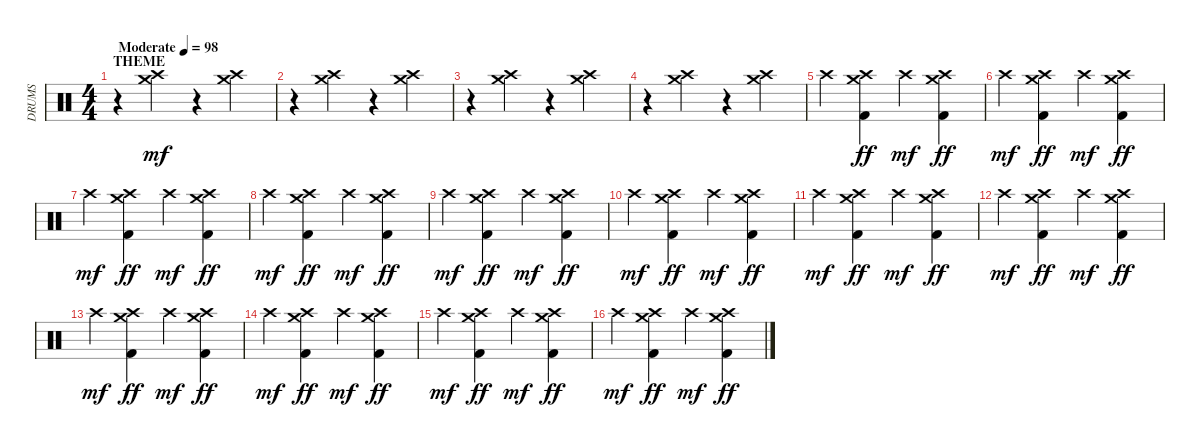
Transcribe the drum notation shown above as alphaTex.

\track ("DRUMS" "DRUMS") {instrument percussion}
\staff {score}
\articulation defaults
\ts (4 4)
\section ("" "THEME")
\tempo (98 "Moderate")
\clef neutral
\ks c
r.4{dy mf} ("Crash high (hit)" "Crash medium (hit)").4 r.4 ("Crash high (hit)" "Crash medium (hit)").4 |
r.4 ("Crash high (hit)" "Crash medium (hit)").4 r.4 ("Crash high (hit)" "Crash medium (hit)").4 |
r.4 ("Crash high (hit)" "Crash medium (hit)").4 r.4 ("Crash high (hit)" "Crash medium (hit)").4 |
r.4 ("Crash high (hit)" "Crash medium (hit)").4 r.4 ("Crash high (hit)" "Crash medium (hit)").4 |
"Crash high (hit)".4 ("Crash high (hit)" "Crash medium (hit)" "Kick (hit) 2").4{dy ff} "Crash high (hit)".4{dy mf} ("Crash high (hit)" "Crash medium (hit)" "Kick (hit) 2").4{dy ff} |
"Crash high (hit)".4{dy mf} ("Crash high (hit)" "Crash medium (hit)" "Kick (hit) 2").4{dy ff} "Crash high (hit)".4{dy mf} ("Crash high (hit)" "Crash medium (hit)" "Kick (hit) 2").4{dy ff} |
"Crash high (hit)".4{dy mf} ("Crash high (hit)" "Crash medium (hit)" "Kick (hit) 2").4{dy ff} "Crash high (hit)".4{dy mf} ("Crash high (hit)" "Crash medium (hit)" "Kick (hit) 2").4{dy ff} |
"Crash high (hit)".4{dy mf} ("Crash high (hit)" "Crash medium (hit)" "Kick (hit) 2").4{dy ff} "Crash high (hit)".4{dy mf} ("Crash high (hit)" "Crash medium (hit)" "Kick (hit) 2").4{dy ff} |
"Crash high (hit)".4{dy mf} ("Crash high (hit)" "Crash medium (hit)" "Kick (hit) 2").4{dy ff} "Crash high (hit)".4{dy mf} ("Crash high (hit)" "Crash medium (hit)" "Kick (hit) 2").4{dy ff} |
"Crash high (hit)".4{dy mf} ("Crash high (hit)" "Crash medium (hit)" "Kick (hit) 2").4{dy ff} "Crash high (hit)".4{dy mf} ("Crash high (hit)" "Crash medium (hit)" "Kick (hit) 2").4{dy ff} |
"Crash high (hit)".4{dy mf} ("Crash high (hit)" "Crash medium (hit)" "Kick (hit) 2").4{dy ff} "Crash high (hit)".4{dy mf} ("Crash high (hit)" "Crash medium (hit)" "Kick (hit) 2").4{dy ff} |
"Crash high (hit)".4{dy mf} ("Crash high (hit)" "Crash medium (hit)" "Kick (hit) 2").4{dy ff} "Crash high (hit)".4{dy mf} ("Crash high (hit)" "Crash medium (hit)" "Kick (hit) 2").4{dy ff} |
"Crash high (hit)".4{dy mf} ("Crash high (hit)" "Crash medium (hit)" "Kick (hit) 2").4{dy ff} "Crash high (hit)".4{dy mf} ("Crash high (hit)" "Crash medium (hit)" "Kick (hit) 2").4{dy ff} |
"Crash high (hit)".4{dy mf} ("Crash high (hit)" "Crash medium (hit)" "Kick (hit) 2").4{dy ff} "Crash high (hit)".4{dy mf} ("Crash high (hit)" "Crash medium (hit)" "Kick (hit) 2").4{dy ff} |
"Crash high (hit)".4{dy mf} ("Crash high (hit)" "Crash medium (hit)" "Kick (hit) 2").4{dy ff} "Crash high (hit)".4{dy mf} ("Crash high (hit)" "Crash medium (hit)" "Kick (hit) 2").4{dy ff} |
"Crash high (hit)".4{dy mf} ("Crash high (hit)" "Crash medium (hit)" "Kick (hit) 2").4{dy ff} "Crash high (hit)".4{dy mf} ("Crash high (hit)" "Crash medium (hit)" "Kick (hit) 2").4{dy ff}
